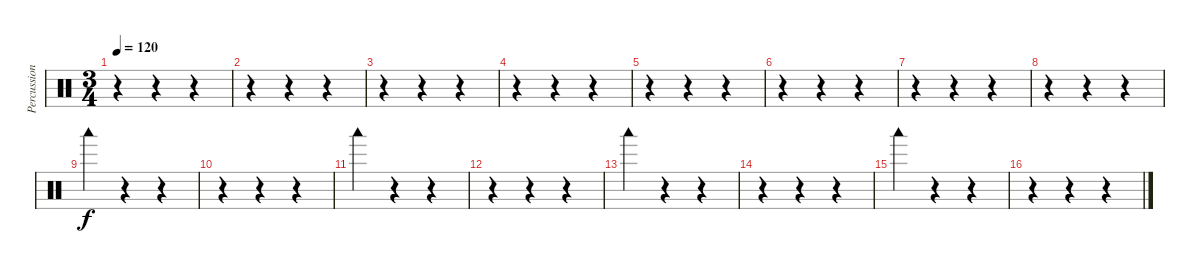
\track ("Percussions" "Percussion") {instrument percussion}
\staff {score}
\articulation defaults
\ts (3 4)
\tempo 120
\clef neutral
\ks c
r.4{dy f} r.4 r.4 |
r.4 r.4 r.4 |
r.4 r.4 r.4 |
r.4 r.4 r.4 |
r.4 r.4 r.4 |
r.4 r.4 r.4 |
r.4 r.4 r.4 |
r.4 r.4 r.4 |
"Woodblock low (hit)".4 r.4 r.4 |
r.4 r.4 r.4 |
"Woodblock low (hit)".4 r.4 r.4 |
r.4 r.4 r.4 |
"Woodblock low (hit)".4 r.4 r.4 |
r.4 r.4 r.4 |
"Woodblock low (hit)".4 r.4 r.4 |
r.4 r.4 r.4
